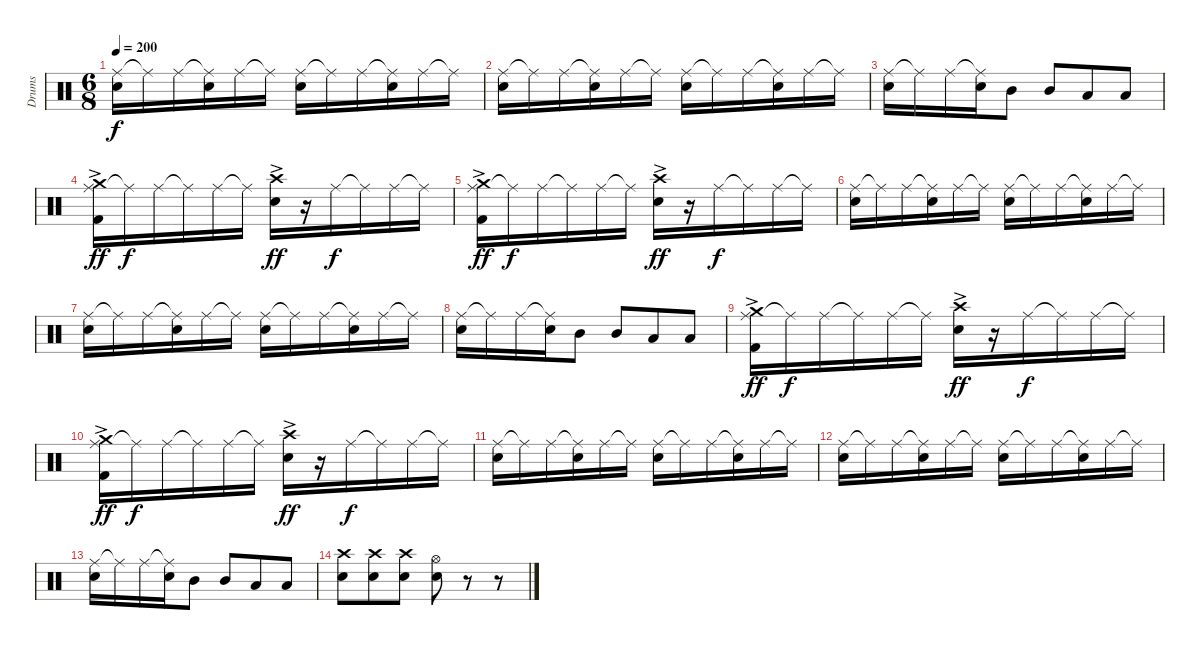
\track ("Drums" "Drums") {instrument percussion}
\staff {score}
\articulation defaults
\ts (6 8)
\tempo 200
\clef neutral
\ks c
("Ride (middle)" "Electric Snare (hit)").16{dy f} "Ride (middle)"{t}.16 "Ride (middle)".16 ("Ride (middle)"{t} "Electric Snare (hit)").16 "Ride (middle)".16 "Ride (middle)"{t}.16 ("Ride (middle)" "Electric Snare (hit)").16 "Ride (middle)"{t}.16 "Ride (middle)".16 ("Ride (middle)"{t} "Electric Snare (hit)").16 "Ride (middle)".16 "Ride (middle)"{t}.16 |
("Ride (middle)" "Electric Snare (hit)").16 "Ride (middle)"{t}.16 "Ride (middle)".16 ("Ride (middle)"{t} "Electric Snare (hit)").16 "Ride (middle)".16 "Ride (middle)"{t}.16 ("Ride (middle)" "Electric Snare (hit)").16 "Ride (middle)"{t}.16 "Ride (middle)".16 ("Ride (middle)"{t} "Electric Snare (hit)").16 "Ride (middle)".16 "Ride (middle)"{t}.16 |
("Ride (middle)" "Electric Snare (hit)").16 "Ride (middle)"{t}.16 "Ride (middle)".16 ("Ride (middle)"{t} "Electric Snare (hit)").16 "Mid Tom (hit)".8 "Mid Tom (hit)".8 "Low Tom (hit)".8 "Low Tom (hit)".8 |
("Ride (middle)" "Crash medium (hit)" "Kick (hit) 2"{ac}).16{dy ff} "Ride (middle)"{t}.16{dy f} "Ride (middle)".16 "Ride (middle)"{t}.16 "Ride (middle)".16 "Ride (middle)"{t}.16 ("Crash high (hit)" "Electric Snare (hit)"{ac}).16{dy ff} r.16 "Ride (middle)".16{dy f} "Ride (middle)"{t}.16 "Ride (middle)".16 "Ride (middle)"{t}.16 |
("Ride (middle)" "Crash medium (hit)" "Kick (hit) 2"{ac}).16{dy ff} "Ride (middle)"{t}.16{dy f} "Ride (middle)".16 "Ride (middle)"{t}.16 "Ride (middle)".16 "Ride (middle)"{t}.16 ("Crash high (hit)" "Electric Snare (hit)"{ac}).16{dy ff} r.16 "Ride (middle)".16{dy f} "Ride (middle)"{t}.16 "Ride (middle)".16 "Ride (middle)"{t}.16 |
("Ride (middle)" "Electric Snare (hit)").16 "Ride (middle)"{t}.16 "Ride (middle)".16 ("Ride (middle)"{t} "Electric Snare (hit)").16 "Ride (middle)".16 "Ride (middle)"{t}.16 ("Ride (middle)" "Electric Snare (hit)").16 "Ride (middle)"{t}.16 "Ride (middle)".16 ("Ride (middle)"{t} "Electric Snare (hit)").16 "Ride (middle)".16 "Ride (middle)"{t}.16 |
("Ride (middle)" "Electric Snare (hit)").16 "Ride (middle)"{t}.16 "Ride (middle)".16 ("Ride (middle)"{t} "Electric Snare (hit)").16 "Ride (middle)".16 "Ride (middle)"{t}.16 ("Ride (middle)" "Electric Snare (hit)").16 "Ride (middle)"{t}.16 "Ride (middle)".16 ("Ride (middle)"{t} "Electric Snare (hit)").16 "Ride (middle)".16 "Ride (middle)"{t}.16 |
("Ride (middle)" "Electric Snare (hit)").16 "Ride (middle)"{t}.16 "Ride (middle)".16 ("Ride (middle)"{t} "Electric Snare (hit)").16 "Mid Tom (hit)".8 "Mid Tom (hit)".8 "Low Tom (hit)".8 "Low Tom (hit)".8 |
("Ride (middle)" "Crash medium (hit)" "Kick (hit) 2"{ac}).16{dy ff} "Ride (middle)"{t}.16{dy f} "Ride (middle)".16 "Ride (middle)"{t}.16 "Ride (middle)".16 "Ride (middle)"{t}.16 ("Crash high (hit)" "Electric Snare (hit)"{ac}).16{dy ff} r.16 "Ride (middle)".16{dy f} "Ride (middle)"{t}.16 "Ride (middle)".16 "Ride (middle)"{t}.16 |
("Ride (middle)" "Crash medium (hit)" "Kick (hit) 2"{ac}).16{dy ff} "Ride (middle)"{t}.16{dy f} "Ride (middle)".16 "Ride (middle)"{t}.16 "Ride (middle)".16 "Ride (middle)"{t}.16 ("Crash high (hit)" "Electric Snare (hit)"{ac}).16{dy ff} r.16 "Ride (middle)".16{dy f} "Ride (middle)"{t}.16 "Ride (middle)".16 "Ride (middle)"{t}.16 |
("Ride (middle)" "Electric Snare (hit)").16 "Ride (middle)"{t}.16 "Ride (middle)".16 ("Ride (middle)"{t} "Electric Snare (hit)").16 "Ride (middle)".16 "Ride (middle)"{t}.16 ("Ride (middle)" "Electric Snare (hit)").16 "Ride (middle)"{t}.16 "Ride (middle)".16 ("Ride (middle)"{t} "Electric Snare (hit)").16 "Ride (middle)".16 "Ride (middle)"{t}.16 |
("Ride (middle)" "Electric Snare (hit)").16 "Ride (middle)"{t}.16 "Ride (middle)".16 ("Ride (middle)"{t} "Electric Snare (hit)").16 "Ride (middle)".16 "Ride (middle)"{t}.16 ("Ride (middle)" "Electric Snare (hit)").16 "Ride (middle)"{t}.16 "Ride (middle)".16 ("Ride (middle)"{t} "Electric Snare (hit)").16 "Ride (middle)".16 "Ride (middle)"{t}.16 |
("Ride (middle)" "Electric Snare (hit)").16 "Ride (middle)"{t}.16 "Ride (middle)".16 ("Ride (middle)"{t} "Electric Snare (hit)").16 "Mid Tom (hit)".8 "Mid Tom (hit)".8 "Low Tom (hit)".8 "Low Tom (hit)".8 |
("Crash high (hit)" "Electric Snare (hit)").8 ("Crash high (hit)" "Electric Snare (hit)").8 ("Crash high (hit)" "Electric Snare (hit)").8 ("Hi-Hat (open)" "Electric Snare (hit)").8 r.8 r.8
